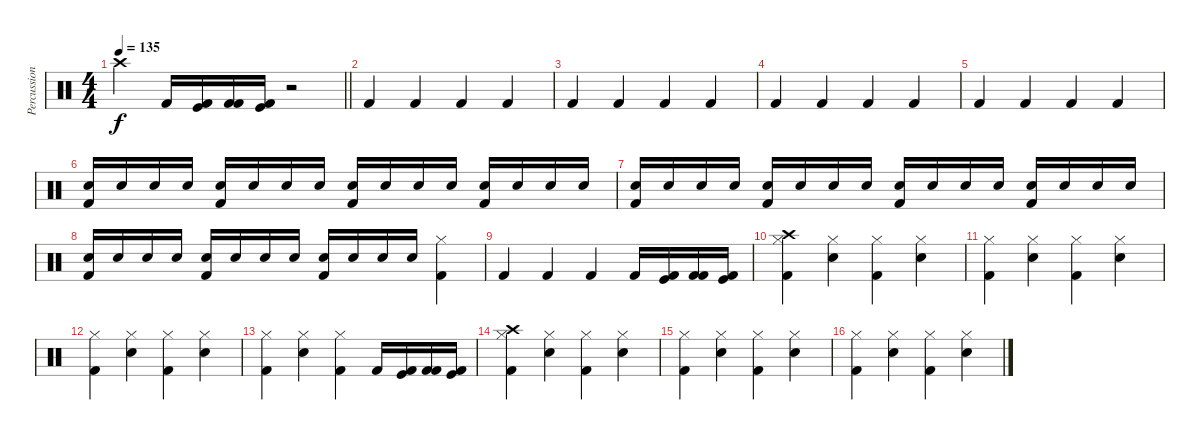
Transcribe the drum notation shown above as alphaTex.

\track ("Percussion" "Percussion") {instrument percussion}
\staff {score}
\articulation defaults
\ts (4 4)
\tempo 135
\clef neutral
\barLineRight lightlight
\ks c "Crash high (hit)".4{dy f} "Kick (hit) 2".16
("Kick (hit)" "Kick (hit) 2").16 ("Kick (hit) 2" "Kick (hit) 2").16 ("Kick (hit)" "Kick (hit) 2").16 r.2 |
"Kick (hit) 2".4 "Kick (hit) 2".4 "Kick (hit) 2".4 "Kick (hit) 2".4 |
"Kick (hit) 2".4 "Kick (hit) 2".4 "Kick (hit) 2".4 "Kick (hit) 2".4 |
"Kick (hit) 2".4 "Kick (hit) 2".4 "Kick (hit) 2".4 "Kick (hit) 2".4 |
"Kick (hit) 2".4 "Kick (hit) 2".4 "Kick (hit) 2".4 "Kick (hit) 2".4 |
("Snare (hit) 2" "Kick (hit) 2").16 "Snare (hit) 2".16 "Snare (hit) 2".16 "Snare (hit) 2".16 ("Snare (hit) 2" "Kick (hit) 2").16 "Snare (hit) 2".16 "Snare (hit) 2".16 "Snare (hit) 2".16 ("Snare (hit) 2" "Kick (hit) 2").16 "Snare (hit) 2".16 "Snare (hit) 2".16 "Snare (hit) 2".16 ("Snare (hit) 2" "Kick (hit) 2").16 "Snare (hit) 2".16 "Snare (hit) 2".16 "Snare (hit) 2".16 |
("Snare (hit) 2" "Kick (hit) 2").16 "Snare (hit) 2".16 "Snare (hit) 2".16 "Snare (hit) 2".16 ("Snare (hit) 2" "Kick (hit) 2").16 "Snare (hit) 2".16 "Snare (hit) 2".16 "Snare (hit) 2".16 ("Snare (hit) 2" "Kick (hit) 2").16 "Snare (hit) 2".16 "Snare (hit) 2".16 "Snare (hit) 2".16 ("Snare (hit) 2" "Kick (hit) 2").16 "Snare (hit) 2".16 "Snare (hit) 2".16 "Snare (hit) 2".16 |
("Snare (hit) 2" "Kick (hit) 2").16 "Snare (hit) 2".16 "Snare (hit) 2".16 "Snare (hit) 2".16 ("Snare (hit) 2" "Kick (hit) 2").16 "Snare (hit) 2".16 "Snare (hit) 2".16 "Snare (hit) 2".16 ("Snare (hit) 2" "Kick (hit) 2").16 "Snare (hit) 2".16 "Snare (hit) 2".16 "Snare (hit) 2".16 ("Hi-Hat (closed)" "Kick (hit) 2").4 |
"Kick (hit) 2".4 "Kick (hit) 2".4 "Kick (hit) 2".4 "Kick (hit) 2".16 ("Kick (hit)" "Kick (hit) 2").16 ("Kick (hit) 2" "Kick (hit) 2").16 ("Kick (hit)" "Kick (hit) 2").16 |
("Crash high (hit)" "Kick (hit) 2" "Hi-Hat (closed)").4 ("Snare (hit) 2" "Hi-Hat (closed)").4 ("Kick (hit) 2" "Hi-Hat (closed)").4 ("Snare (hit) 2" "Hi-Hat (closed)").4 |
("Kick (hit) 2" "Hi-Hat (closed)").4 ("Snare (hit) 2" "Hi-Hat (closed)").4 ("Kick (hit) 2" "Hi-Hat (closed)").4 ("Snare (hit) 2" "Hi-Hat (closed)").4 |
("Kick (hit) 2" "Hi-Hat (closed)").4 ("Snare (hit) 2" "Hi-Hat (closed)").4 ("Kick (hit) 2" "Hi-Hat (closed)").4 ("Snare (hit) 2" "Hi-Hat (closed)").4 |
("Kick (hit) 2" "Hi-Hat (closed)").4 ("Snare (hit) 2" "Hi-Hat (closed)").4 ("Kick (hit) 2" "Hi-Hat (closed)").4 "Kick (hit) 2".16 ("Kick (hit)" "Kick (hit) 2").16 ("Kick (hit) 2" "Kick (hit) 2").16 ("Kick (hit)" "Kick (hit) 2").16 |
("Crash high (hit)" "Kick (hit) 2" "Hi-Hat (closed)").4 ("Snare (hit) 2" "Hi-Hat (closed)").4 ("Kick (hit) 2" "Hi-Hat (closed)").4 ("Snare (hit) 2" "Hi-Hat (closed)").4 |
("Kick (hit) 2" "Hi-Hat (closed)").4 ("Snare (hit) 2" "Hi-Hat (closed)").4 ("Kick (hit) 2" "Hi-Hat (closed)").4 ("Snare (hit) 2" "Hi-Hat (closed)").4 |
("Kick (hit) 2" "Hi-Hat (closed)").4 ("Snare (hit) 2" "Hi-Hat (closed)").4 ("Kick (hit) 2" "Hi-Hat (closed)").4 ("Snare (hit) 2" "Hi-Hat (closed)").4
